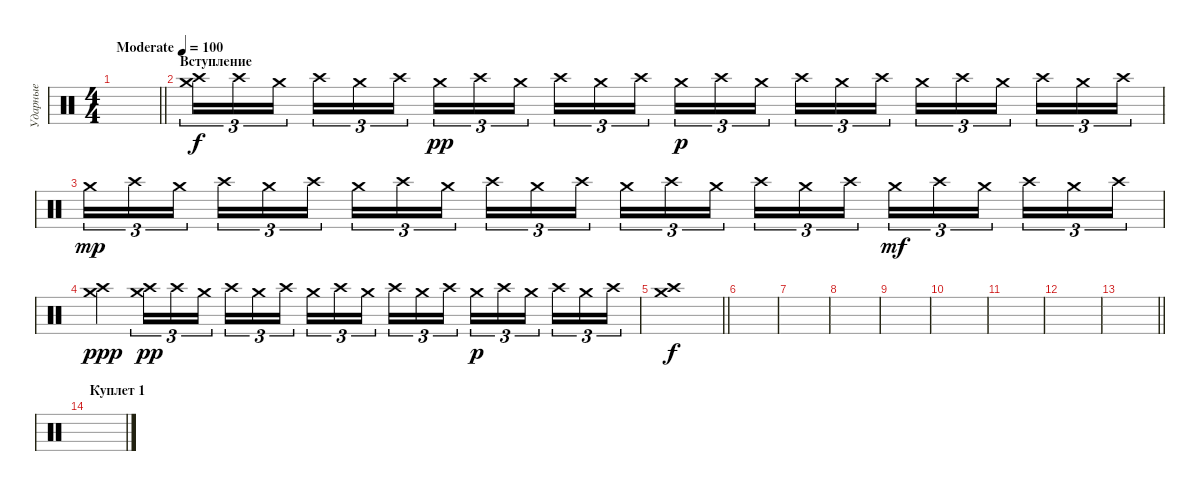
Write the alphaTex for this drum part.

\track ("Ударные" "Ударные") {instrument percussion}
\staff {score}
\articulation defaults
\ts (4 4)
\tempo (100 "Moderate")
\clef neutral
\barLineRight lightlight
\ks c
|
\section ("" "Вступление")
("Crash medium (hit)" "Crash high (hit)").16{tu (3 2)} "Crash high (hit)".16{tu (3 2)} "Crash medium (hit)".16{tu (3 2) beam splitsecondary} "Crash high (hit)".16{tu (3 2)} "Crash medium (hit)".16{tu (3 2)} "Crash high (hit)".16{tu (3 2)} "Crash medium (hit)".16{tu (3 2) dy pp} "Crash high (hit)".16{tu (3 2)} "Crash medium (hit)".16{tu (3 2) beam splitsecondary} "Crash high (hit)".16{tu (3 2)} "Crash medium (hit)".16{tu (3 2)} "Crash high (hit)".16{tu (3 2)} "Crash medium (hit)".16{tu (3 2) dy p} "Crash high (hit)".16{tu (3 2)} "Crash medium (hit)".16{tu (3 2) beam splitsecondary} "Crash high (hit)".16{tu (3 2)} "Crash medium (hit)".16{tu (3 2)} "Crash high (hit)".16{tu (3 2)} "Crash medium (hit)".16{tu (3 2)} "Crash high (hit)".16{tu (3 2)} "Crash medium (hit)".16{tu (3 2) beam splitsecondary} "Crash high (hit)".16{tu (3 2)} "Crash medium (hit)".16{tu (3 2)} "Crash high (hit)".16{tu (3 2)} |
"Crash medium (hit)".16{tu (3 2) dy mp} "Crash high (hit)".16{tu (3 2)} "Crash medium (hit)".16{tu (3 2) beam splitsecondary} "Crash high (hit)".16{tu (3 2)} "Crash medium (hit)".16{tu (3 2)} "Crash high (hit)".16{tu (3 2)} "Crash medium (hit)".16{tu (3 2)} "Crash high (hit)".16{tu (3 2)} "Crash medium (hit)".16{tu (3 2) beam splitsecondary} "Crash high (hit)".16{tu (3 2)} "Crash medium (hit)".16{tu (3 2)} "Crash high (hit)".16{tu (3 2)} "Crash medium (hit)".16{tu (3 2)} "Crash high (hit)".16{tu (3 2)} "Crash medium (hit)".16{tu (3 2) beam splitsecondary} "Crash high (hit)".16{tu (3 2)} "Crash medium (hit)".16{tu (3 2)} "Crash high (hit)".16{tu (3 2)} "Crash medium (hit)".16{tu (3 2) dy mf} "Crash high (hit)".16{tu (3 2)} "Crash medium (hit)".16{tu (3 2) beam splitsecondary} "Crash high (hit)".16{tu (3 2)} "Crash medium (hit)".16{tu (3 2)} "Crash high (hit)".16{tu (3 2)} |
("Crash medium (hit)" "Crash high (hit)").4{dy ppp} ("Crash medium (hit)" "Crash high (hit)").16{tu (3 2) dy pp} "Crash high (hit)".16{tu (3 2)} "Crash medium (hit)".16{tu (3 2) beam splitsecondary} "Crash high (hit)".16{tu (3 2)} "Crash medium (hit)".16{tu (3 2)} "Crash high (hit)".16{tu (3 2)} "Crash medium (hit)".16{tu (3 2)} "Crash high (hit)".16{tu (3 2)} "Crash medium (hit)".16{tu (3 2) beam splitsecondary} "Crash high (hit)".16{tu (3 2)} "Crash medium (hit)".16{tu (3 2)} "Crash high (hit)".16{tu (3 2)} "Crash medium (hit)".16{tu (3 2) dy p} "Crash high (hit)".16{tu (3 2)} "Crash medium (hit)".16{tu (3 2) beam splitsecondary} "Crash high (hit)".16{tu (3 2)} "Crash medium (hit)".16{tu (3 2)} "Crash high (hit)".16{tu (3 2)} |
\barLineRight lightlight
("Crash high (hit)" "Crash medium (hit)").1{dy f} |
\section ("" "")
|
|
|
|
|
|
|
\barLineRight lightlight
|
\section ("" "Куплет 1")
